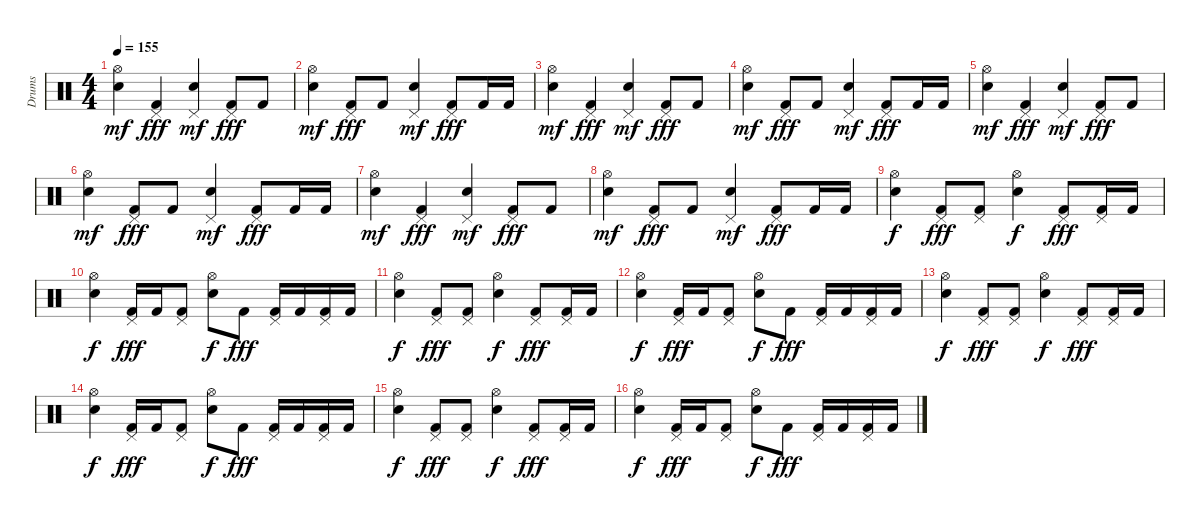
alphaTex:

\track ("Drums" "Drums") {instrument percussion}
\staff {score}
\articulation defaults
\ts (4 4)
\tempo 155
\clef neutral
\ks c
("Hi-Hat (open)" "Electric Snare (hit)").4{dy mf} ("Pedal Hi-Hat (hit)" "Kick (hit) 2").4{dy fff} ("Pedal Hi-Hat (hit)" "Electric Snare (hit)").4{dy mf} ("Pedal Hi-Hat (hit)" "Kick (hit) 2").8{dy fff} "Kick (hit) 2".8 |
("Hi-Hat (open)" "Electric Snare (hit)").4{dy mf} ("Pedal Hi-Hat (hit)" "Kick (hit) 2").8{dy fff} "Kick (hit) 2".8 ("Pedal Hi-Hat (hit)" "Electric Snare (hit)").4{dy mf} ("Pedal Hi-Hat (hit)" "Kick (hit) 2").8{dy fff} "Kick (hit) 2".16 "Kick (hit) 2".16 |
("Hi-Hat (open)" "Electric Snare (hit)").4{dy mf} ("Pedal Hi-Hat (hit)" "Kick (hit) 2").4{dy fff} ("Pedal Hi-Hat (hit)" "Electric Snare (hit)").4{dy mf} ("Pedal Hi-Hat (hit)" "Kick (hit) 2").8{dy fff} "Kick (hit) 2".8 |
("Hi-Hat (open)" "Electric Snare (hit)").4{dy mf} ("Pedal Hi-Hat (hit)" "Kick (hit) 2").8{dy fff} "Kick (hit) 2".8 ("Pedal Hi-Hat (hit)" "Electric Snare (hit)").4{dy mf} ("Pedal Hi-Hat (hit)" "Kick (hit) 2").8{dy fff} "Kick (hit) 2".16 "Kick (hit) 2".16 |
("Hi-Hat (open)" "Electric Snare (hit)").4{dy mf} ("Pedal Hi-Hat (hit)" "Kick (hit) 2").4{dy fff} ("Pedal Hi-Hat (hit)" "Electric Snare (hit)").4{dy mf} ("Pedal Hi-Hat (hit)" "Kick (hit) 2").8{dy fff} "Kick (hit) 2".8 |
("Hi-Hat (open)" "Electric Snare (hit)").4{dy mf} ("Pedal Hi-Hat (hit)" "Kick (hit) 2").8{dy fff} "Kick (hit) 2".8 ("Pedal Hi-Hat (hit)" "Electric Snare (hit)").4{dy mf} ("Pedal Hi-Hat (hit)" "Kick (hit) 2").8{dy fff} "Kick (hit) 2".16 "Kick (hit) 2".16 |
("Hi-Hat (open)" "Electric Snare (hit)").4{dy mf} ("Pedal Hi-Hat (hit)" "Kick (hit) 2").4{dy fff} ("Pedal Hi-Hat (hit)" "Electric Snare (hit)").4{dy mf} ("Pedal Hi-Hat (hit)" "Kick (hit) 2").8{dy fff} "Kick (hit) 2".8 |
("Hi-Hat (open)" "Electric Snare (hit)").4{dy mf} ("Pedal Hi-Hat (hit)" "Kick (hit) 2").8{dy fff} "Kick (hit) 2".8 ("Pedal Hi-Hat (hit)" "Electric Snare (hit)").4{dy mf} ("Pedal Hi-Hat (hit)" "Kick (hit) 2").8{dy fff} "Kick (hit) 2".16 "Kick (hit) 2".16 |
("Hi-Hat (open)" "Electric Snare (hit)").4{dy f} ("Pedal Hi-Hat (hit)" "Kick (hit) 2").8{dy fff} ("Pedal Hi-Hat (hit)" "Kick (hit) 2").8 ("Hi-Hat (open)" "Electric Snare (hit)").4{dy f} ("Pedal Hi-Hat (hit)" "Kick (hit) 2").8{dy fff} ("Pedal Hi-Hat (hit)" "Kick (hit) 2").16 "Kick (hit) 2".16 |
("Hi-Hat (open)" "Electric Snare (hit)").4{dy f} ("Pedal Hi-Hat (hit)" "Kick (hit) 2").16{dy fff} "Kick (hit) 2".16 ("Pedal Hi-Hat (hit)" "Kick (hit) 2").8 ("Hi-Hat (open)" "Electric Snare (hit)").8{dy f} "Kick (hit) 2".8{dy fff} ("Pedal Hi-Hat (hit)" "Kick (hit) 2").16 "Kick (hit) 2".16 ("Pedal Hi-Hat (hit)" "Kick (hit) 2").16 "Kick (hit) 2".16 |
("Hi-Hat (open)" "Electric Snare (hit)").4{dy f} ("Pedal Hi-Hat (hit)" "Kick (hit) 2").8{dy fff} ("Pedal Hi-Hat (hit)" "Kick (hit) 2").8 ("Hi-Hat (open)" "Electric Snare (hit)").4{dy f} ("Pedal Hi-Hat (hit)" "Kick (hit) 2").8{dy fff} ("Pedal Hi-Hat (hit)" "Kick (hit) 2").16 "Kick (hit) 2".16 |
("Hi-Hat (open)" "Electric Snare (hit)").4{dy f} ("Pedal Hi-Hat (hit)" "Kick (hit) 2").16{dy fff} "Kick (hit) 2".16 ("Pedal Hi-Hat (hit)" "Kick (hit) 2").8 ("Hi-Hat (open)" "Electric Snare (hit)").8{dy f} "Kick (hit) 2".8{dy fff} ("Pedal Hi-Hat (hit)" "Kick (hit) 2").16 "Kick (hit) 2".16 ("Pedal Hi-Hat (hit)" "Kick (hit) 2").16 "Kick (hit) 2".16 |
("Hi-Hat (open)" "Electric Snare (hit)").4{dy f} ("Pedal Hi-Hat (hit)" "Kick (hit) 2").8{dy fff} ("Pedal Hi-Hat (hit)" "Kick (hit) 2").8 ("Hi-Hat (open)" "Electric Snare (hit)").4{dy f} ("Pedal Hi-Hat (hit)" "Kick (hit) 2").8{dy fff} ("Pedal Hi-Hat (hit)" "Kick (hit) 2").16 "Kick (hit) 2".16 |
("Hi-Hat (open)" "Electric Snare (hit)").4{dy f} ("Pedal Hi-Hat (hit)" "Kick (hit) 2").16{dy fff} "Kick (hit) 2".16 ("Pedal Hi-Hat (hit)" "Kick (hit) 2").8 ("Hi-Hat (open)" "Electric Snare (hit)").8{dy f} "Kick (hit) 2".8{dy fff} ("Pedal Hi-Hat (hit)" "Kick (hit) 2").16 "Kick (hit) 2".16 ("Pedal Hi-Hat (hit)" "Kick (hit) 2").16 "Kick (hit) 2".16 |
("Hi-Hat (open)" "Electric Snare (hit)").4{dy f} ("Pedal Hi-Hat (hit)" "Kick (hit) 2").8{dy fff} ("Pedal Hi-Hat (hit)" "Kick (hit) 2").8 ("Hi-Hat (open)" "Electric Snare (hit)").4{dy f} ("Pedal Hi-Hat (hit)" "Kick (hit) 2").8{dy fff} ("Pedal Hi-Hat (hit)" "Kick (hit) 2").16 "Kick (hit) 2".16 |
("Hi-Hat (open)" "Electric Snare (hit)").4{dy f} ("Pedal Hi-Hat (hit)" "Kick (hit) 2").16{dy fff} "Kick (hit) 2".16 ("Pedal Hi-Hat (hit)" "Kick (hit) 2").8 ("Hi-Hat (open)" "Electric Snare (hit)").8{dy f} "Kick (hit) 2".8{dy fff} ("Pedal Hi-Hat (hit)" "Kick (hit) 2").16 "Kick (hit) 2".16 ("Pedal Hi-Hat (hit)" "Kick (hit) 2").16 "Kick (hit) 2".16
